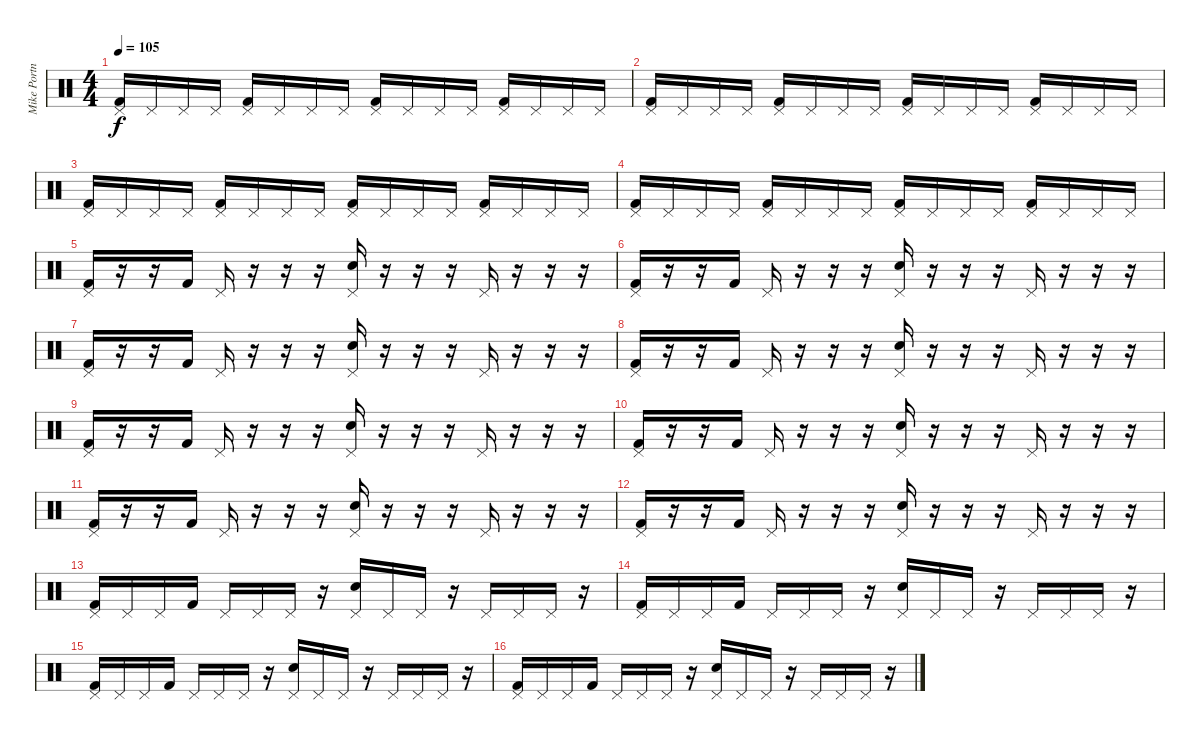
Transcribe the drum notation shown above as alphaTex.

\track ("Mike Portnoy" "Mike Portn") {instrument percussion}
\staff {score}
\articulation defaults
\ts (4 4)
\tempo 105
\clef neutral
\ks c
("Pedal Hi-Hat (hit)" "Kick (hit) 2").16{dy f} "Pedal Hi-Hat (hit)".16 "Pedal Hi-Hat (hit)".16 "Pedal Hi-Hat (hit)".16 ("Pedal Hi-Hat (hit)" "Kick (hit) 2").16 "Pedal Hi-Hat (hit)".16 "Pedal Hi-Hat (hit)".16 "Pedal Hi-Hat (hit)".16 ("Pedal Hi-Hat (hit)" "Kick (hit) 2").16 "Pedal Hi-Hat (hit)".16 "Pedal Hi-Hat (hit)".16 "Pedal Hi-Hat (hit)".16 ("Pedal Hi-Hat (hit)" "Kick (hit) 2").16 "Pedal Hi-Hat (hit)".16 "Pedal Hi-Hat (hit)".16 "Pedal Hi-Hat (hit)".16 |
("Pedal Hi-Hat (hit)" "Kick (hit) 2").16 "Pedal Hi-Hat (hit)".16 "Pedal Hi-Hat (hit)".16 "Pedal Hi-Hat (hit)".16 ("Pedal Hi-Hat (hit)" "Kick (hit) 2").16 "Pedal Hi-Hat (hit)".16 "Pedal Hi-Hat (hit)".16 "Pedal Hi-Hat (hit)".16 ("Pedal Hi-Hat (hit)" "Kick (hit) 2").16 "Pedal Hi-Hat (hit)".16 "Pedal Hi-Hat (hit)".16 "Pedal Hi-Hat (hit)".16 ("Pedal Hi-Hat (hit)" "Kick (hit) 2").16 "Pedal Hi-Hat (hit)".16 "Pedal Hi-Hat (hit)".16 "Pedal Hi-Hat (hit)".16 |
("Pedal Hi-Hat (hit)" "Kick (hit) 2").16 "Pedal Hi-Hat (hit)".16 "Pedal Hi-Hat (hit)".16 "Pedal Hi-Hat (hit)".16 ("Pedal Hi-Hat (hit)" "Kick (hit) 2").16 "Pedal Hi-Hat (hit)".16 "Pedal Hi-Hat (hit)".16 "Pedal Hi-Hat (hit)".16 ("Pedal Hi-Hat (hit)" "Kick (hit) 2").16 "Pedal Hi-Hat (hit)".16 "Pedal Hi-Hat (hit)".16 "Pedal Hi-Hat (hit)".16 ("Pedal Hi-Hat (hit)" "Kick (hit) 2").16 "Pedal Hi-Hat (hit)".16 "Pedal Hi-Hat (hit)".16 "Pedal Hi-Hat (hit)".16 |
("Pedal Hi-Hat (hit)" "Kick (hit) 2").16 "Pedal Hi-Hat (hit)".16 "Pedal Hi-Hat (hit)".16 "Pedal Hi-Hat (hit)".16 ("Pedal Hi-Hat (hit)" "Kick (hit) 2").16 "Pedal Hi-Hat (hit)".16 "Pedal Hi-Hat (hit)".16 "Pedal Hi-Hat (hit)".16 ("Pedal Hi-Hat (hit)" "Kick (hit) 2").16 "Pedal Hi-Hat (hit)".16 "Pedal Hi-Hat (hit)".16 "Pedal Hi-Hat (hit)".16 ("Pedal Hi-Hat (hit)" "Kick (hit) 2").16 "Pedal Hi-Hat (hit)".16 "Pedal Hi-Hat (hit)".16 "Pedal Hi-Hat (hit)".16 |
("Pedal Hi-Hat (hit)" "Kick (hit) 2").16 r.16 r.16 "Kick (hit) 2".16 "Pedal Hi-Hat (hit)".16 r.16 r.16 r.16 ("Pedal Hi-Hat (hit)" "Electric Snare (hit)").16 r.16 r.16 r.16 "Pedal Hi-Hat (hit)".16 r.16 r.16 r.16 |
("Pedal Hi-Hat (hit)" "Kick (hit) 2").16 r.16 r.16 "Kick (hit) 2".16 "Pedal Hi-Hat (hit)".16 r.16 r.16 r.16 ("Pedal Hi-Hat (hit)" "Electric Snare (hit)").16 r.16 r.16 r.16 "Pedal Hi-Hat (hit)".16 r.16 r.16 r.16 |
("Pedal Hi-Hat (hit)" "Kick (hit) 2").16 r.16 r.16 "Kick (hit) 2".16 "Pedal Hi-Hat (hit)".16 r.16 r.16 r.16 ("Pedal Hi-Hat (hit)" "Electric Snare (hit)").16 r.16 r.16 r.16 "Pedal Hi-Hat (hit)".16 r.16 r.16 r.16 |
("Pedal Hi-Hat (hit)" "Kick (hit) 2").16 r.16 r.16 "Kick (hit) 2".16 "Pedal Hi-Hat (hit)".16 r.16 r.16 r.16 ("Pedal Hi-Hat (hit)" "Electric Snare (hit)").16 r.16 r.16 r.16 "Pedal Hi-Hat (hit)".16 r.16 r.16 r.16 |
("Pedal Hi-Hat (hit)" "Kick (hit) 2").16 r.16 r.16 "Kick (hit) 2".16 "Pedal Hi-Hat (hit)".16 r.16 r.16 r.16 ("Pedal Hi-Hat (hit)" "Electric Snare (hit)").16 r.16 r.16 r.16 "Pedal Hi-Hat (hit)".16 r.16 r.16 r.16 |
("Pedal Hi-Hat (hit)" "Kick (hit) 2").16 r.16 r.16 "Kick (hit) 2".16 "Pedal Hi-Hat (hit)".16 r.16 r.16 r.16 ("Pedal Hi-Hat (hit)" "Electric Snare (hit)").16 r.16 r.16 r.16 "Pedal Hi-Hat (hit)".16 r.16 r.16 r.16 |
("Pedal Hi-Hat (hit)" "Kick (hit) 2").16 r.16 r.16 "Kick (hit) 2".16 "Pedal Hi-Hat (hit)".16 r.16 r.16 r.16 ("Pedal Hi-Hat (hit)" "Electric Snare (hit)").16 r.16 r.16 r.16 "Pedal Hi-Hat (hit)".16 r.16 r.16 r.16 |
("Pedal Hi-Hat (hit)" "Kick (hit) 2").16 r.16 r.16 "Kick (hit) 2".16 "Pedal Hi-Hat (hit)".16 r.16 r.16 r.16 ("Pedal Hi-Hat (hit)" "Electric Snare (hit)").16 r.16 r.16 r.16 "Pedal Hi-Hat (hit)".16 r.16 r.16 r.16 |
("Pedal Hi-Hat (hit)" "Kick (hit) 2").16 "Pedal Hi-Hat (hit)".16 "Pedal Hi-Hat (hit)".16 "Kick (hit) 2".16 "Pedal Hi-Hat (hit)".16 "Pedal Hi-Hat (hit)".16 "Pedal Hi-Hat (hit)".16 r.16 ("Pedal Hi-Hat (hit)" "Electric Snare (hit)").16 "Pedal Hi-Hat (hit)".16 "Pedal Hi-Hat (hit)".16 r.16 "Pedal Hi-Hat (hit)".16 "Pedal Hi-Hat (hit)".16 "Pedal Hi-Hat (hit)".16 r.16 |
("Pedal Hi-Hat (hit)" "Kick (hit) 2").16 "Pedal Hi-Hat (hit)".16 "Pedal Hi-Hat (hit)".16 "Kick (hit) 2".16 "Pedal Hi-Hat (hit)".16 "Pedal Hi-Hat (hit)".16 "Pedal Hi-Hat (hit)".16 r.16 ("Pedal Hi-Hat (hit)" "Electric Snare (hit)").16 "Pedal Hi-Hat (hit)".16 "Pedal Hi-Hat (hit)".16 r.16 "Pedal Hi-Hat (hit)".16 "Pedal Hi-Hat (hit)".16 "Pedal Hi-Hat (hit)".16 r.16 |
("Pedal Hi-Hat (hit)" "Kick (hit) 2").16 "Pedal Hi-Hat (hit)".16 "Pedal Hi-Hat (hit)".16 "Kick (hit) 2".16 "Pedal Hi-Hat (hit)".16 "Pedal Hi-Hat (hit)".16 "Pedal Hi-Hat (hit)".16 r.16 ("Pedal Hi-Hat (hit)" "Electric Snare (hit)").16 "Pedal Hi-Hat (hit)".16 "Pedal Hi-Hat (hit)".16 r.16 "Pedal Hi-Hat (hit)".16 "Pedal Hi-Hat (hit)".16 "Pedal Hi-Hat (hit)".16 r.16 |
("Pedal Hi-Hat (hit)" "Kick (hit) 2").16 "Pedal Hi-Hat (hit)".16 "Pedal Hi-Hat (hit)".16 "Kick (hit) 2".16 "Pedal Hi-Hat (hit)".16 "Pedal Hi-Hat (hit)".16 "Pedal Hi-Hat (hit)".16 r.16 ("Pedal Hi-Hat (hit)" "Electric Snare (hit)").16 "Pedal Hi-Hat (hit)".16 "Pedal Hi-Hat (hit)".16 r.16 "Pedal Hi-Hat (hit)".16 "Pedal Hi-Hat (hit)".16 "Pedal Hi-Hat (hit)".16 r.16
